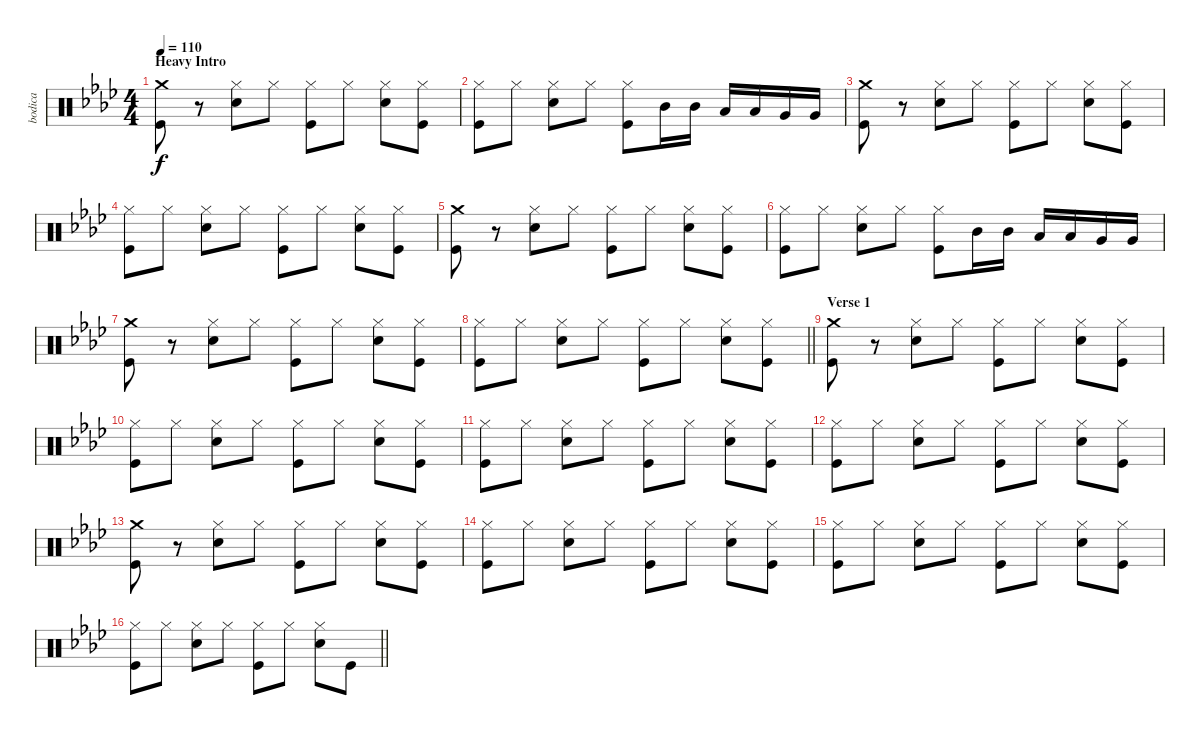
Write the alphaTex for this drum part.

\track ("bodica" "bodica") {instrument percussion}
\staff {score}
\articulation defaults
\ts (4 4)
\section ("" "Heavy Intro")
\tempo 110
\clef neutral
\ks fminor
("Crash medium (hit)" "Kick (hit)").8{dy f} r.8 ("Hi-Hat (closed)" "Snare (hit) 2").8 "Hi-Hat (closed)".8 ("Hi-Hat (closed)" "Kick (hit)").8 "Hi-Hat (closed)".8 ("Hi-Hat (closed)" "Snare (hit) 2").8 ("Hi-Hat (closed)" "Kick (hit)").8 |
("Hi-Hat (closed)" "Kick (hit)").8 "Hi-Hat (closed)".8 ("Hi-Hat (closed)" "Snare (hit) 2").8 "Hi-Hat (closed)".8 ("Hi-Hat (closed)" "Kick (hit)").8 "Mid Tom (hit)".16 "Mid Tom (hit)".16 "Low Tom (hit)".16 "Low Tom (hit)".16 "Very Low Tom (hit)".16 "Very Low Tom (hit)".16 |
("Crash medium (hit)" "Kick (hit)").8 r.8 ("Hi-Hat (closed)" "Snare (hit) 2").8 "Hi-Hat (closed)".8 ("Hi-Hat (closed)" "Kick (hit)").8 "Hi-Hat (closed)".8 ("Hi-Hat (closed)" "Snare (hit) 2").8 ("Hi-Hat (closed)" "Kick (hit)").8 |
("Hi-Hat (closed)" "Kick (hit)").8 "Hi-Hat (closed)".8 ("Hi-Hat (closed)" "Snare (hit) 2").8 "Hi-Hat (closed)".8 ("Hi-Hat (closed)" "Kick (hit)").8 "Hi-Hat (closed)".8 ("Hi-Hat (closed)" "Snare (hit) 2").8 ("Hi-Hat (closed)" "Kick (hit)").8 |
("Crash medium (hit)" "Kick (hit)").8 r.8 ("Hi-Hat (closed)" "Snare (hit) 2").8 "Hi-Hat (closed)".8 ("Hi-Hat (closed)" "Kick (hit)").8 "Hi-Hat (closed)".8 ("Hi-Hat (closed)" "Snare (hit) 2").8 ("Hi-Hat (closed)" "Kick (hit)").8 |
("Hi-Hat (closed)" "Kick (hit)").8 "Hi-Hat (closed)".8 ("Hi-Hat (closed)" "Snare (hit) 2").8 "Hi-Hat (closed)".8 ("Hi-Hat (closed)" "Kick (hit)").8 "Mid Tom (hit)".16 "Mid Tom (hit)".16 "Low Tom (hit)".16 "Low Tom (hit)".16 "Very Low Tom (hit)".16 "Very Low Tom (hit)".16 |
("Crash medium (hit)" "Kick (hit)").8 r.8 ("Hi-Hat (closed)" "Snare (hit) 2").8 "Hi-Hat (closed)".8 ("Hi-Hat (closed)" "Kick (hit)").8 "Hi-Hat (closed)".8 ("Hi-Hat (closed)" "Snare (hit) 2").8 ("Hi-Hat (closed)" "Kick (hit)").8 |
\barLineRight lightlight
("Hi-Hat (closed)" "Kick (hit)").8 "Hi-Hat (closed)".8 ("Hi-Hat (closed)" "Snare (hit) 2").8 "Hi-Hat (closed)".8 ("Hi-Hat (closed)" "Kick (hit)").8 "Hi-Hat (closed)".8 ("Hi-Hat (closed)" "Snare (hit) 2").8 ("Hi-Hat (closed)" "Kick (hit)").8 |
\section ("" "Verse 1")
("Crash medium (hit)" "Kick (hit)").8 r.8 ("Hi-Hat (closed)" "Snare (hit) 2").8 "Hi-Hat (closed)".8 ("Hi-Hat (closed)" "Kick (hit)").8 "Hi-Hat (closed)".8 ("Hi-Hat (closed)" "Snare (hit) 2").8 ("Hi-Hat (closed)" "Kick (hit)").8 |
("Hi-Hat (closed)" "Kick (hit)").8 "Hi-Hat (closed)".8 ("Hi-Hat (closed)" "Snare (hit) 2").8 "Hi-Hat (closed)".8 ("Hi-Hat (closed)" "Kick (hit)").8 "Hi-Hat (closed)".8 ("Hi-Hat (closed)" "Snare (hit) 2").8 ("Hi-Hat (closed)" "Kick (hit)").8 |
("Hi-Hat (closed)" "Kick (hit)").8 "Hi-Hat (closed)".8 ("Hi-Hat (closed)" "Snare (hit) 2").8 "Hi-Hat (closed)".8 ("Hi-Hat (closed)" "Kick (hit)").8 "Hi-Hat (closed)".8 ("Hi-Hat (closed)" "Snare (hit) 2").8 ("Hi-Hat (closed)" "Kick (hit)").8 |
("Hi-Hat (closed)" "Kick (hit)").8 "Hi-Hat (closed)".8 ("Hi-Hat (closed)" "Snare (hit) 2").8 "Hi-Hat (closed)".8 ("Hi-Hat (closed)" "Kick (hit)").8 "Hi-Hat (closed)".8 ("Hi-Hat (closed)" "Snare (hit) 2").8 ("Hi-Hat (closed)" "Kick (hit)").8 |
("Crash medium (hit)" "Kick (hit)").8 r.8 ("Hi-Hat (closed)" "Snare (hit) 2").8 "Hi-Hat (closed)".8 ("Hi-Hat (closed)" "Kick (hit)").8 "Hi-Hat (closed)".8 ("Hi-Hat (closed)" "Snare (hit) 2").8 ("Hi-Hat (closed)" "Kick (hit)").8 |
("Hi-Hat (closed)" "Kick (hit)").8 "Hi-Hat (closed)".8 ("Hi-Hat (closed)" "Snare (hit) 2").8 "Hi-Hat (closed)".8 ("Hi-Hat (closed)" "Kick (hit)").8 "Hi-Hat (closed)".8 ("Hi-Hat (closed)" "Snare (hit) 2").8 ("Hi-Hat (closed)" "Kick (hit)").8 |
("Hi-Hat (closed)" "Kick (hit)").8 "Hi-Hat (closed)".8 ("Hi-Hat (closed)" "Snare (hit) 2").8 "Hi-Hat (closed)".8 ("Hi-Hat (closed)" "Kick (hit)").8 "Hi-Hat (closed)".8 ("Hi-Hat (closed)" "Snare (hit) 2").8 ("Hi-Hat (closed)" "Kick (hit)").8 |
\barLineRight lightlight
("Hi-Hat (closed)" "Kick (hit)").8 "Hi-Hat (closed)".8 ("Hi-Hat (closed)" "Snare (hit) 2").8 "Hi-Hat (closed)".8 ("Hi-Hat (closed)" "Kick (hit)").8 "Hi-Hat (closed)".8 ("Hi-Hat (closed)" "Snare (hit) 2").8 "Kick (hit)".8
